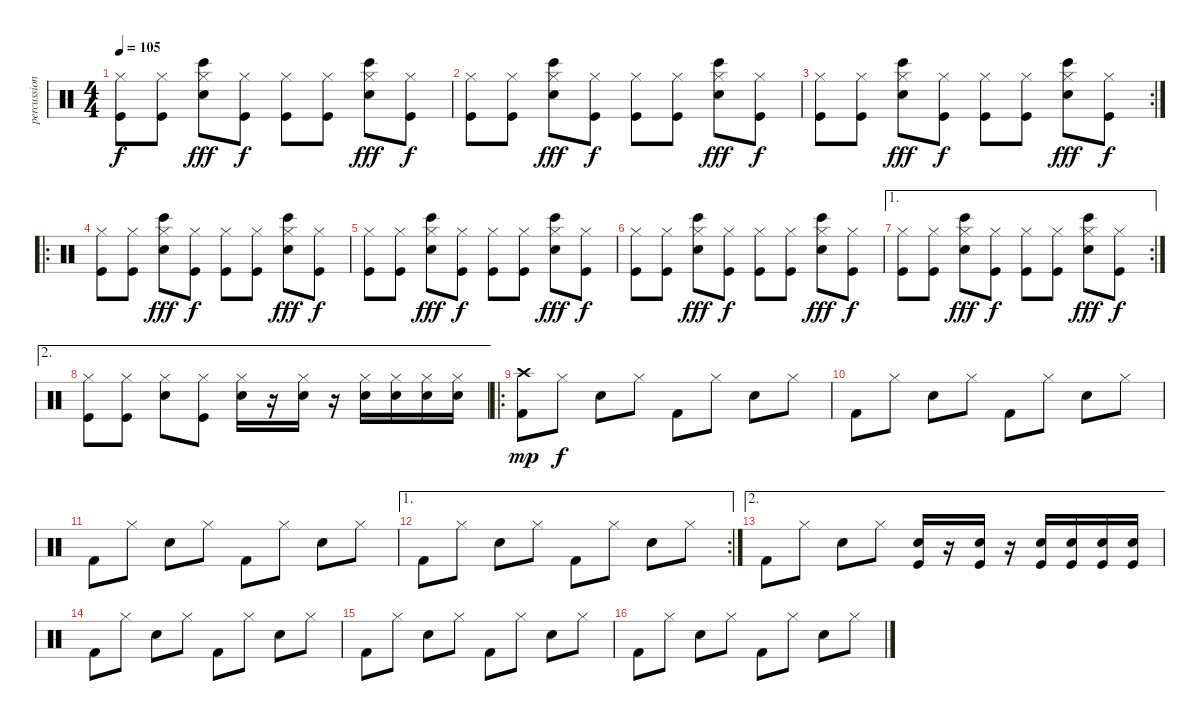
\track ("percussions" "percussion") {instrument percussion}
\staff {score}
\articulation defaults
\ts (4 4)
\tempo 105
\clef neutral
\ks c
("Hi-Hat (closed)" "Kick (hit)").8{dy f} ("Hi-Hat (closed)" "Kick (hit)").8 ("Hi-Hat (closed)" "Bongo High (hit)" "Electric Snare (hit)").8{dy fff} ("Hi-Hat (closed)" "Kick (hit)").8{dy f} ("Hi-Hat (closed)" "Kick (hit)").8 ("Hi-Hat (closed)" "Kick (hit)").8 ("Hi-Hat (closed)" "Bongo High (hit)" "Electric Snare (hit)").8{dy fff} ("Hi-Hat (closed)" "Kick (hit)").8{dy f} |
("Hi-Hat (closed)" "Kick (hit)").8 ("Hi-Hat (closed)" "Kick (hit)").8 ("Hi-Hat (closed)" "Bongo High (hit)" "Electric Snare (hit)").8{dy fff} ("Hi-Hat (closed)" "Kick (hit)").8{dy f} ("Hi-Hat (closed)" "Kick (hit)").8 ("Hi-Hat (closed)" "Kick (hit)").8 ("Hi-Hat (closed)" "Bongo High (hit)" "Electric Snare (hit)").8{dy fff} ("Hi-Hat (closed)" "Kick (hit)").8{dy f} |
\rc 2
("Hi-Hat (closed)" "Kick (hit)").8 ("Hi-Hat (closed)" "Kick (hit)").8 ("Hi-Hat (closed)" "Bongo High (hit)" "Electric Snare (hit)").8{dy fff} ("Hi-Hat (closed)" "Kick (hit)").8{dy f} ("Hi-Hat (closed)" "Kick (hit)").8 ("Hi-Hat (closed)" "Kick (hit)").8 ("Hi-Hat (closed)" "Bongo High (hit)" "Electric Snare (hit)").8{dy fff} ("Hi-Hat (closed)" "Kick (hit)").8{dy f} |
\ro
("Hi-Hat (closed)" "Kick (hit)").8 ("Hi-Hat (closed)" "Kick (hit)").8 ("Hi-Hat (closed)" "Bongo High (hit)" "Electric Snare (hit)").8{dy fff} ("Hi-Hat (closed)" "Kick (hit)").8{dy f} ("Hi-Hat (closed)" "Kick (hit)").8 ("Hi-Hat (closed)" "Kick (hit)").8 ("Hi-Hat (closed)" "Bongo High (hit)" "Electric Snare (hit)").8{dy fff} ("Hi-Hat (closed)" "Kick (hit)").8{dy f} |
("Hi-Hat (closed)" "Kick (hit)").8 ("Hi-Hat (closed)" "Kick (hit)").8 ("Hi-Hat (closed)" "Bongo High (hit)" "Electric Snare (hit)").8{dy fff} ("Hi-Hat (closed)" "Kick (hit)").8{dy f} ("Hi-Hat (closed)" "Kick (hit)").8 ("Hi-Hat (closed)" "Kick (hit)").8 ("Hi-Hat (closed)" "Bongo High (hit)" "Electric Snare (hit)").8{dy fff} ("Hi-Hat (closed)" "Kick (hit)").8{dy f} |
("Hi-Hat (closed)" "Kick (hit)").8 ("Hi-Hat (closed)" "Kick (hit)").8 ("Hi-Hat (closed)" "Bongo High (hit)" "Electric Snare (hit)").8{dy fff} ("Hi-Hat (closed)" "Kick (hit)").8{dy f} ("Hi-Hat (closed)" "Kick (hit)").8 ("Hi-Hat (closed)" "Kick (hit)").8 ("Hi-Hat (closed)" "Bongo High (hit)" "Electric Snare (hit)").8{dy fff} ("Hi-Hat (closed)" "Kick (hit)").8{dy f} |
\ae 1
\rc 2
("Hi-Hat (closed)" "Kick (hit)").8 ("Hi-Hat (closed)" "Kick (hit)").8 ("Hi-Hat (closed)" "Bongo High (hit)" "Electric Snare (hit)").8{dy fff} ("Hi-Hat (closed)" "Kick (hit)").8{dy f} ("Hi-Hat (closed)" "Kick (hit)").8 ("Hi-Hat (closed)" "Kick (hit)").8 ("Hi-Hat (closed)" "Bongo High (hit)" "Electric Snare (hit)").8{dy fff} ("Hi-Hat (closed)" "Kick (hit)").8{dy f} |
\ae 2
("Hi-Hat (closed)" "Kick (hit)").8 ("Hi-Hat (closed)" "Kick (hit)").8 ("Hi-Hat (closed)" "Electric Snare (hit)").8 ("Hi-Hat (closed)" "Kick (hit)").8 ("Hi-Hat (closed)" "Electric Snare (hit)").16 r.16 ("Hi-Hat (closed)" "Electric Snare (hit)").16 r.16 ("Hi-Hat (closed)" "Electric Snare (hit)").16 ("Hi-Hat (closed)" "Electric Snare (hit)").16 ("Hi-Hat (closed)" "Electric Snare (hit)").16 ("Hi-Hat (closed)" "Electric Snare (hit)").16 |
\ro
("Crash high (hit)" "Kick (hit) 2").8{dy mp} "Hi-Hat (closed)".8{dy f} "Electric Snare (hit)".8 "Hi-Hat (closed)".8 "Kick (hit) 2".8 "Hi-Hat (closed)".8 "Electric Snare (hit)".8 "Hi-Hat (closed)".8 |
"Kick (hit) 2".8 "Hi-Hat (closed)".8 "Electric Snare (hit)".8 "Hi-Hat (closed)".8 "Kick (hit) 2".8 "Hi-Hat (closed)".8 "Electric Snare (hit)".8 "Hi-Hat (closed)".8 |
"Kick (hit) 2".8 "Hi-Hat (closed)".8 "Electric Snare (hit)".8 "Hi-Hat (closed)".8 "Kick (hit) 2".8 "Hi-Hat (closed)".8 "Electric Snare (hit)".8 "Hi-Hat (closed)".8 |
\ae 1
\rc 2 "Kick (hit) 2".8 "Hi-Hat (closed)".8 "Electric Snare (hit)".8 "Hi-Hat (closed)".8 "Kick (hit) 2".8 "Hi-Hat (closed)".8 "Electric Snare (hit)".8 "Hi-Hat (closed)".8
|
\ae 2 "Kick (hit) 2".8 "Hi-Hat (closed)".8 "Electric Snare (hit)".8 "Hi-Hat (closed)".8
("Kick (hit)" "Electric Snare (hit)").16 r.16 ("Kick (hit)" "Electric Snare (hit)").16 r.16 ("Kick (hit)" "Electric Snare (hit)").16 ("Kick (hit)" "Electric Snare (hit)").16 ("Kick (hit)" "Electric Snare (hit)").16 ("Kick (hit)" "Electric Snare (hit)").16 |
"Kick (hit) 2".8 "Hi-Hat (closed)".8 "Electric Snare (hit)".8 "Hi-Hat (closed)".8 "Kick (hit) 2".8 "Hi-Hat (closed)".8 "Electric Snare (hit)".8 "Hi-Hat (closed)".8 |
"Kick (hit) 2".8 "Hi-Hat (closed)".8 "Electric Snare (hit)".8 "Hi-Hat (closed)".8 "Kick (hit) 2".8 "Hi-Hat (closed)".8 "Electric Snare (hit)".8 "Hi-Hat (closed)".8 |
"Kick (hit) 2".8 "Hi-Hat (closed)".8 "Electric Snare (hit)".8 "Hi-Hat (closed)".8 "Kick (hit) 2".8 "Hi-Hat (closed)".8 "Electric Snare (hit)".8 "Hi-Hat (closed)".8
